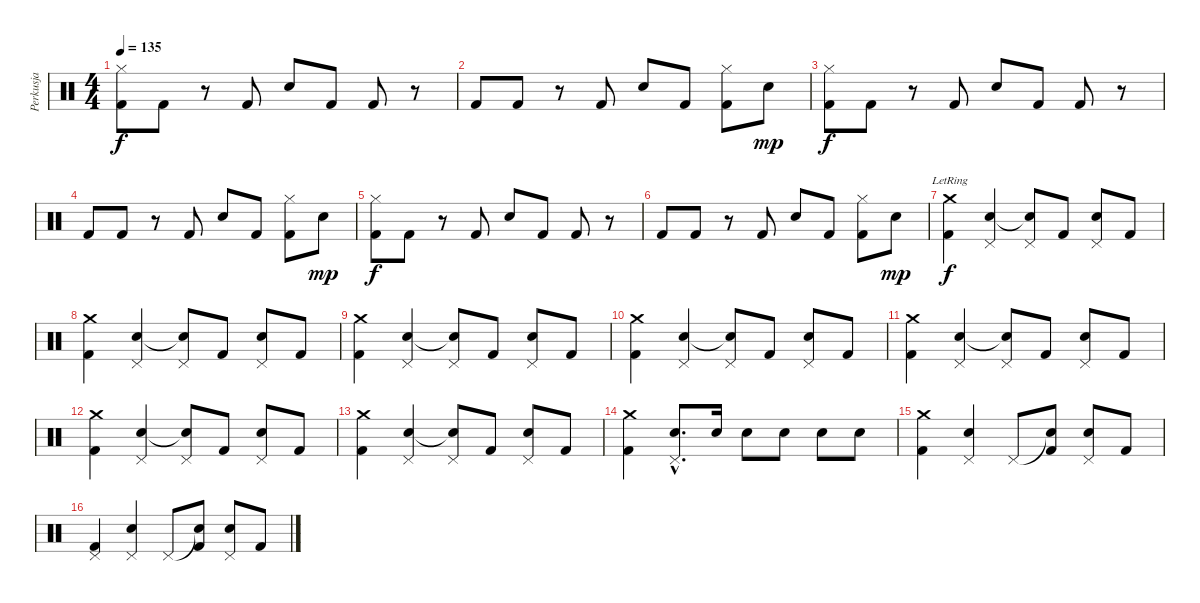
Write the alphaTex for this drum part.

\track ("Perkusja" "Perkusja") {instrument percussion}
\staff {score}
\articulation defaults
\ts (4 4)
\tempo 135
\clef neutral
\ks c
("Hi-Hat (closed)" "Kick (hit) 2").8{dy f} "Kick (hit) 2".8 r.8 "Kick (hit) 2".8 "Snare (hit) 2".8 "Kick (hit) 2".8 "Kick (hit) 2".8 r.8 |
"Kick (hit) 2".8 "Kick (hit) 2".8 r.8 "Kick (hit) 2".8 "Snare (hit) 2".8 "Kick (hit) 2".8 ("Hi-Hat (closed)" "Kick (hit) 2").8 "Snare (hit) 2".8{dy mp} |
("Hi-Hat (closed)" "Kick (hit) 2").8{dy f} "Kick (hit) 2".8 r.8 "Kick (hit) 2".8 "Snare (hit) 2".8 "Kick (hit) 2".8 "Kick (hit) 2".8 r.8 |
"Kick (hit) 2".8 "Kick (hit) 2".8 r.8 "Kick (hit) 2".8 "Snare (hit) 2".8 "Kick (hit) 2".8 ("Hi-Hat (closed)" "Kick (hit) 2").8 "Snare (hit) 2".8{dy mp} |
("Hi-Hat (closed)" "Kick (hit) 2").8{dy f} "Kick (hit) 2".8 r.8 "Kick (hit) 2".8 "Snare (hit) 2".8 "Kick (hit) 2".8 "Kick (hit) 2".8 r.8 |
"Kick (hit) 2".8 "Kick (hit) 2".8 r.8 "Kick (hit) 2".8 "Snare (hit) 2".8 "Kick (hit) 2".8 ("Hi-Hat (closed)" "Kick (hit) 2").8 "Snare (hit) 2".8{dy mp} |
("Crash medium (hit)"{lr} "Kick (hit) 2").4{dy f} ("Pedal Hi-Hat (hit)" "Snare (hit) 2").4 ("Pedal Hi-Hat (hit)" "Snare (hit)"{t}).8 "Kick (hit) 2".8 ("Pedal Hi-Hat (hit)" "Snare (hit) 2").8 "Kick (hit) 2".8 |
("Crash medium (hit)" "Kick (hit) 2").4 ("Pedal Hi-Hat (hit)" "Snare (hit) 2").4 ("Pedal Hi-Hat (hit)" "Snare (hit)"{t}).8 "Kick (hit) 2".8 ("Pedal Hi-Hat (hit)" "Snare (hit) 2").8 "Kick (hit) 2".8 |
("Crash medium (hit)" "Kick (hit) 2").4 ("Pedal Hi-Hat (hit)" "Snare (hit) 2").4 ("Pedal Hi-Hat (hit)" "Snare (hit)"{t}).8 "Kick (hit) 2".8 ("Pedal Hi-Hat (hit)" "Snare (hit) 2").8 "Kick (hit) 2".8 |
("Crash medium (hit)" "Kick (hit) 2").4 ("Pedal Hi-Hat (hit)" "Snare (hit) 2").4 ("Pedal Hi-Hat (hit)" "Snare (hit)"{t}).8 "Kick (hit) 2".8 ("Pedal Hi-Hat (hit)" "Snare (hit) 2").8 "Kick (hit) 2".8 |
("Crash medium (hit)" "Kick (hit) 2").4 ("Pedal Hi-Hat (hit)" "Snare (hit) 2").4 ("Pedal Hi-Hat (hit)" "Snare (hit)"{t}).8 "Kick (hit) 2".8 ("Pedal Hi-Hat (hit)" "Snare (hit) 2").8 "Kick (hit) 2".8 |
("Crash medium (hit)" "Kick (hit) 2").4 ("Pedal Hi-Hat (hit)" "Snare (hit) 2").4 ("Pedal Hi-Hat (hit)" "Snare (hit)"{t}).8 "Kick (hit) 2".8 ("Pedal Hi-Hat (hit)" "Snare (hit) 2").8 "Kick (hit) 2".8 |
("Crash medium (hit)" "Kick (hit) 2").4 ("Pedal Hi-Hat (hit)" "Snare (hit) 2").4 ("Pedal Hi-Hat (hit)" "Snare (hit)"{t}).8 "Kick (hit) 2".8 ("Pedal Hi-Hat (hit)" "Snare (hit) 2").8 "Kick (hit) 2".8 |
("Crash medium (hit)" "Kick (hit) 2").4 ("Pedal Hi-Hat (hit)"{hac} "Snare (hit) 2"{hac}).8{d} "Snare (hit) 2".16 "Snare (hit) 2".8 "Snare (hit) 2".8 "Snare (hit) 2".8 "Snare (hit) 2".8 |
("Crash medium (hit)" "Kick (hit) 2").4 ("Pedal Hi-Hat (hit)" "Snare (hit) 2").4 "Pedal Hi-Hat (hit)".8 ("Snare (hit)"{t} "Kick (hit) 2").8 ("Pedal Hi-Hat (hit)" "Snare (hit) 2").8 "Kick (hit) 2".8 |
("Pedal Hi-Hat (hit)" "Kick (hit) 2").4 ("Pedal Hi-Hat (hit)" "Snare (hit) 2").4 "Pedal Hi-Hat (hit)".8 ("Snare (hit)"{t} "Kick (hit) 2").8 ("Pedal Hi-Hat (hit)" "Snare (hit) 2").8 "Kick (hit) 2".8
